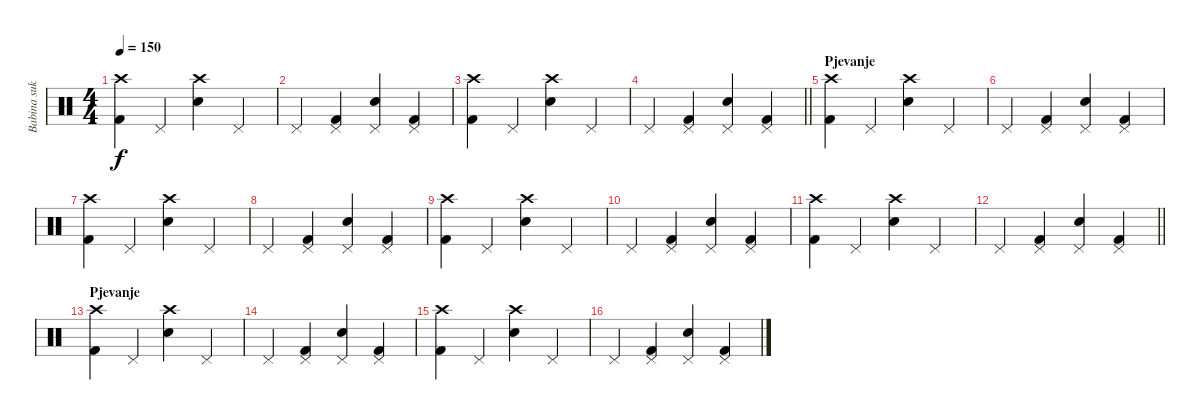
\track ("Babina sukrvica - Dragan" "Babina suk") {instrument percussion}
\staff {score}
\articulation defaults
\ts (4 4)
\tempo 150
\clef neutral
\ks c
("Crash high (hit)" "Kick (hit) 2").4{dy f} "Pedal Hi-Hat (hit)".4 ("Crash high (hit)" "Electric Snare (hit)").4 "Pedal Hi-Hat (hit)".4 |
"Pedal Hi-Hat (hit)".4 ("Pedal Hi-Hat (hit)" "Kick (hit) 2").4 ("Pedal Hi-Hat (hit)" "Electric Snare (hit)").4 ("Pedal Hi-Hat (hit)" "Kick (hit) 2").4 |
("Crash high (hit)" "Kick (hit) 2").4 "Pedal Hi-Hat (hit)".4 ("Crash high (hit)" "Electric Snare (hit)").4 "Pedal Hi-Hat (hit)".4 |
\barLineRight lightlight "Pedal Hi-Hat (hit)".4
("Pedal Hi-Hat (hit)" "Kick (hit) 2").4 ("Pedal Hi-Hat (hit)" "Electric Snare (hit)").4 ("Pedal Hi-Hat (hit)" "Kick (hit) 2").4 |
\section ("" "Pjevanje")
("Crash high (hit)" "Kick (hit) 2").4 "Pedal Hi-Hat (hit)".4 ("Crash high (hit)" "Electric Snare (hit)").4 "Pedal Hi-Hat (hit)".4 |
"Pedal Hi-Hat (hit)".4 ("Pedal Hi-Hat (hit)" "Kick (hit) 2").4 ("Pedal Hi-Hat (hit)" "Electric Snare (hit)").4 ("Pedal Hi-Hat (hit)" "Kick (hit) 2").4 |
("Crash high (hit)" "Kick (hit) 2").4 "Pedal Hi-Hat (hit)".4 ("Crash high (hit)" "Electric Snare (hit)").4 "Pedal Hi-Hat (hit)".4 |
"Pedal Hi-Hat (hit)".4 ("Pedal Hi-Hat (hit)" "Kick (hit) 2").4 ("Pedal Hi-Hat (hit)" "Electric Snare (hit)").4 ("Pedal Hi-Hat (hit)" "Kick (hit) 2").4 |
("Crash high (hit)" "Kick (hit) 2").4 "Pedal Hi-Hat (hit)".4 ("Crash high (hit)" "Electric Snare (hit)").4 "Pedal Hi-Hat (hit)".4 |
"Pedal Hi-Hat (hit)".4 ("Pedal Hi-Hat (hit)" "Kick (hit) 2").4 ("Pedal Hi-Hat (hit)" "Electric Snare (hit)").4 ("Pedal Hi-Hat (hit)" "Kick (hit) 2").4 |
("Crash high (hit)" "Kick (hit) 2").4 "Pedal Hi-Hat (hit)".4 ("Crash high (hit)" "Electric Snare (hit)").4 "Pedal Hi-Hat (hit)".4 |
\barLineRight lightlight "Pedal Hi-Hat (hit)".4
("Pedal Hi-Hat (hit)" "Kick (hit) 2").4 ("Pedal Hi-Hat (hit)" "Electric Snare (hit)").4 ("Pedal Hi-Hat (hit)" "Kick (hit) 2").4 |
\section ("" "Pjevanje")
("Crash high (hit)" "Kick (hit) 2").4 "Pedal Hi-Hat (hit)".4 ("Crash high (hit)" "Electric Snare (hit)").4 "Pedal Hi-Hat (hit)".4 |
"Pedal Hi-Hat (hit)".4 ("Pedal Hi-Hat (hit)" "Kick (hit) 2").4 ("Pedal Hi-Hat (hit)" "Electric Snare (hit)").4 ("Pedal Hi-Hat (hit)" "Kick (hit) 2").4 |
("Crash high (hit)" "Kick (hit) 2").4 "Pedal Hi-Hat (hit)".4 ("Crash high (hit)" "Electric Snare (hit)").4 "Pedal Hi-Hat (hit)".4 |
"Pedal Hi-Hat (hit)".4 ("Pedal Hi-Hat (hit)" "Kick (hit) 2").4 ("Pedal Hi-Hat (hit)" "Electric Snare (hit)").4 ("Pedal Hi-Hat (hit)" "Kick (hit) 2").4
